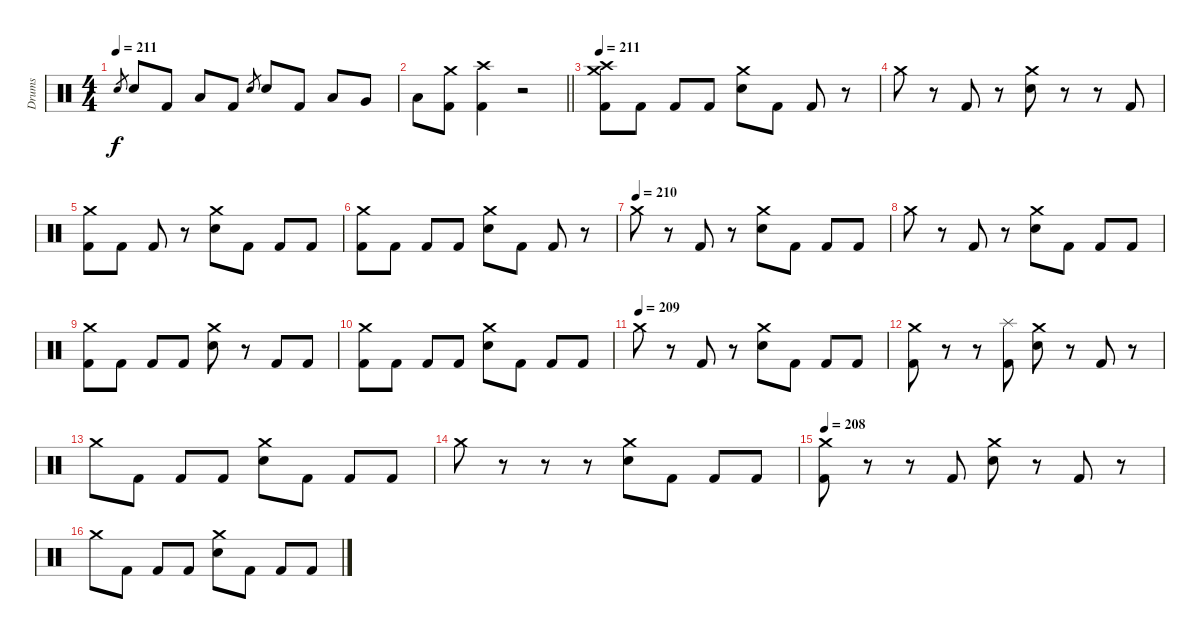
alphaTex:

\track ("Drums" "Drums") {instrument percussion}
\staff {score}
\articulation defaults
\ts (4 4)
\tempo 211
\clef neutral
\ks c "Electric Snare (hit)".8{gr dy f} "Electric Snare (hit)".8 "Kick (hit) 2".8 "Low Tom (hit)".8 "Kick (hit) 2".8 "Electric Snare (hit)".8{gr} "Electric Snare (hit)".8 "Kick (hit) 2".8 "Low Tom (hit)".8 "Very Low Tom (hit)".8
|
\barLineRight lightlight "Low Tom (hit)".8
("Crash medium (hit)" "Kick (hit) 2").8 ("Crash high (hit)" "Kick (hit) 2").4 r.2{volume 0} |
\section ("" "")
\tempo 211
("Crash high (hit)" "Crash medium (hit)" "Kick (hit) 2").8{volume 16} "Kick (hit) 2".8 "Kick (hit) 2".8 "Kick (hit) 2".8 ("Crash medium (hit)" "Electric Snare (hit)").8 "Kick (hit) 2".8 "Kick (hit) 2".8 r.8 |
"Crash medium (hit)".8 r.8 "Kick (hit) 2".8 r.8 ("Crash medium (hit)" "Electric Snare (hit)").8 r.8 r.8 "Kick (hit) 2".8 |
("Crash medium (hit)" "Kick (hit) 2").8 "Kick (hit) 2".8 "Kick (hit) 2".8 r.8 ("Crash medium (hit)" "Electric Snare (hit)").8 "Kick (hit) 2".8 "Kick (hit) 2".8 "Kick (hit) 2".8 |
("Crash medium (hit)" "Kick (hit) 2").8 "Kick (hit) 2".8 "Kick (hit) 2".8 "Kick (hit) 2".8 ("Crash medium (hit)" "Electric Snare (hit)").8 "Kick (hit) 2".8 "Kick (hit) 2".8 r.8 |
\tempo (210)
"Crash medium (hit)".8 r.8 "Kick (hit) 2".8 r.8 ("Crash medium (hit)" "Electric Snare (hit)").8 "Kick (hit) 2".8 "Kick (hit) 2".8 "Kick (hit) 2".8 |
"Crash medium (hit)".8 r.8 "Kick (hit) 2".8 r.8 ("Crash medium (hit)" "Electric Snare (hit)").8 "Kick (hit) 2".8 "Kick (hit) 2".8 "Kick (hit) 2".8 |
("Crash medium (hit)" "Kick (hit) 2").8 "Kick (hit) 2".8 "Kick (hit) 2".8 "Kick (hit) 2".8 ("Crash medium (hit)" "Electric Snare (hit)").8 r.8 "Kick (hit) 2".8 "Kick (hit) 2".8 |
("Crash medium (hit)" "Kick (hit) 2").8 "Kick (hit) 2".8 "Kick (hit) 2".8 "Kick (hit) 2".8 ("Crash medium (hit)" "Electric Snare (hit)").8 "Kick (hit) 2".8 "Kick (hit) 2".8 "Kick (hit) 2".8 |
\tempo (209)
"Crash medium (hit)".8 r.8 "Kick (hit) 2".8 r.8 ("Crash medium (hit)" "Electric Snare (hit)").8 "Kick (hit) 2".8 "Kick (hit) 2".8 "Kick (hit) 2".8 |
("Crash medium (hit)" "Kick (hit) 2").8 r.8 r.8 ("Splash (hit)" "Kick (hit) 2").8 ("Crash medium (hit)" "Electric Snare (hit)").8 r.8 "Kick (hit) 2".8 r.8 |
"Crash medium (hit)".8 "Kick (hit) 2".8 "Kick (hit) 2".8 "Kick (hit) 2".8 ("Crash medium (hit)" "Electric Snare (hit)").8 "Kick (hit) 2".8 "Kick (hit) 2".8 "Kick (hit) 2".8 |
"Crash medium (hit)".8 r.8 r.8 r.8 ("Crash medium (hit)" "Electric Snare (hit)").8 "Kick (hit) 2".8 "Kick (hit) 2".8 "Kick (hit) 2".8 |
\tempo 208
("Crash medium (hit)" "Kick (hit) 2").8 r.8 r.8 "Kick (hit) 2".8 ("Crash medium (hit)" "Electric Snare (hit)").8 r.8 "Kick (hit) 2".8 r.8 |
"Crash medium (hit)".8 "Kick (hit) 2".8 "Kick (hit) 2".8 "Kick (hit) 2".8 ("Crash medium (hit)" "Electric Snare (hit)").8 "Kick (hit) 2".8 "Kick (hit) 2".8 "Kick (hit) 2".8
